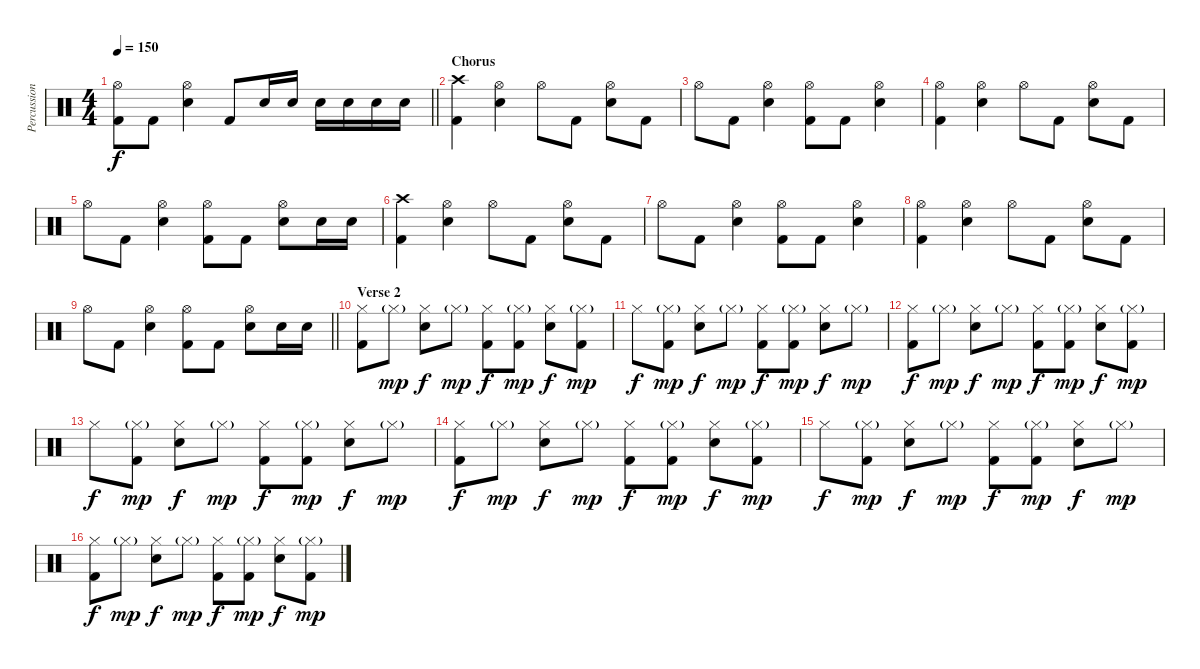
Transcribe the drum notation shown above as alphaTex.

\track ("Percussion" "Percussion") {instrument percussion}
\staff {score}
\articulation defaults
\ts (4 4)
\tempo 150
\clef neutral
\barLineRight lightlight
\ks c
("Hi-Hat (open)" "Kick (hit) 2").8{dy f} "Kick (hit) 2".8 ("Hi-Hat (open)" "Electric Snare (hit)").4 "Kick (hit) 2".8 "Electric Snare (hit)".16 "Electric Snare (hit)".16 "Electric Snare (hit)".16 "Electric Snare (hit)".16 "Electric Snare (hit)".16 "Electric Snare (hit)".16 |
\section ("" "Chorus")
("Crash high (hit)" "Kick (hit) 2").4{volume 13} ("Hi-Hat (open)" "Electric Snare (hit)").4 "Hi-Hat (open)".8 "Kick (hit) 2".8 ("Hi-Hat (open)" "Electric Snare (hit)").8 "Kick (hit) 2".8 |
"Hi-Hat (open)".8 "Kick (hit) 2".8 ("Hi-Hat (open)" "Electric Snare (hit)").4 ("Hi-Hat (open)" "Kick (hit) 2").8 "Kick (hit) 2".8 ("Hi-Hat (open)" "Electric Snare (hit)").4 |
("Hi-Hat (open)" "Kick (hit) 2").4 ("Hi-Hat (open)" "Electric Snare (hit)").4 "Hi-Hat (open)".8 "Kick (hit) 2".8 ("Hi-Hat (open)" "Electric Snare (hit)").8 "Kick (hit) 2".8 |
"Hi-Hat (open)".8 "Kick (hit) 2".8 ("Hi-Hat (open)" "Electric Snare (hit)").4 ("Hi-Hat (open)" "Kick (hit) 2").8 "Kick (hit) 2".8 ("Hi-Hat (open)" "Electric Snare (hit)").8 "Electric Snare (hit)".16 "Electric Snare (hit)".16 |
("Crash high (hit)" "Kick (hit) 2").4 ("Hi-Hat (open)" "Electric Snare (hit)").4 "Hi-Hat (open)".8 "Kick (hit) 2".8 ("Hi-Hat (open)" "Electric Snare (hit)").8 "Kick (hit) 2".8 |
"Hi-Hat (open)".8 "Kick (hit) 2".8 ("Hi-Hat (open)" "Electric Snare (hit)").4 ("Hi-Hat (open)" "Kick (hit) 2").8 "Kick (hit) 2".8 ("Hi-Hat (open)" "Electric Snare (hit)").4 |
("Hi-Hat (open)" "Kick (hit) 2").4 ("Hi-Hat (open)" "Electric Snare (hit)").4 "Hi-Hat (open)".8 "Kick (hit) 2".8 ("Hi-Hat (open)" "Electric Snare (hit)").8 "Kick (hit) 2".8 |
\barLineRight lightlight "Hi-Hat (open)".8 "Kick (hit) 2".8
("Hi-Hat (open)" "Electric Snare (hit)").4 ("Hi-Hat (open)" "Kick (hit) 2").8 "Kick (hit) 2".8 ("Hi-Hat (open)" "Electric Snare (hit)").8 "Electric Snare (hit)".16 "Electric Snare (hit)".16 |
\section ("" "Verse 2")
("Hi-Hat (closed)" "Kick (hit) 2").8 "Hi-Hat (closed)"{g}.8{dy mp} ("Hi-Hat (closed)" "Electric Snare (hit)").8{dy f} "Hi-Hat (closed)"{g}.8{dy mp} ("Hi-Hat (closed)" "Kick (hit) 2").8{dy f} ("Hi-Hat (closed)"{g} "Kick (hit) 2").8{dy mp} ("Hi-Hat (closed)" "Electric Snare (hit)").8{dy f} ("Hi-Hat (closed)"{g} "Kick (hit) 2").8{dy mp} |
"Hi-Hat (closed)".8{dy f} ("Hi-Hat (closed)"{g} "Kick (hit) 2").8{dy mp} ("Hi-Hat (closed)" "Electric Snare (hit)").8{dy f} "Hi-Hat (closed)"{g}.8{dy mp} ("Hi-Hat (closed)" "Kick (hit) 2").8{dy f} ("Hi-Hat (closed)"{g} "Kick (hit) 2").8{dy mp} ("Hi-Hat (closed)" "Electric Snare (hit)").8{dy f} "Hi-Hat (closed)"{g}.8{dy mp} |
("Hi-Hat (closed)" "Kick (hit) 2").8{dy f} "Hi-Hat (closed)"{g}.8{dy mp} ("Hi-Hat (closed)" "Electric Snare (hit)").8{dy f} "Hi-Hat (closed)"{g}.8{dy mp} ("Hi-Hat (closed)" "Kick (hit) 2").8{dy f} ("Hi-Hat (closed)"{g} "Kick (hit) 2").8{dy mp} ("Hi-Hat (closed)" "Electric Snare (hit)").8{dy f} ("Hi-Hat (closed)"{g} "Kick (hit) 2").8{dy mp} |
"Hi-Hat (closed)".8{dy f} ("Hi-Hat (closed)"{g} "Kick (hit) 2").8{dy mp} ("Hi-Hat (closed)" "Electric Snare (hit)").8{dy f} "Hi-Hat (closed)"{g}.8{dy mp} ("Hi-Hat (closed)" "Kick (hit) 2").8{dy f} ("Hi-Hat (closed)"{g} "Kick (hit) 2").8{dy mp} ("Hi-Hat (closed)" "Electric Snare (hit)").8{dy f} "Hi-Hat (closed)"{g}.8{dy mp} |
("Hi-Hat (closed)" "Kick (hit) 2").8{dy f} "Hi-Hat (closed)"{g}.8{dy mp} ("Hi-Hat (closed)" "Electric Snare (hit)").8{dy f} "Hi-Hat (closed)"{g}.8{dy mp} ("Hi-Hat (closed)" "Kick (hit) 2").8{dy f} ("Hi-Hat (closed)"{g} "Kick (hit) 2").8{dy mp} ("Hi-Hat (closed)" "Electric Snare (hit)").8{dy f} ("Hi-Hat (closed)"{g} "Kick (hit) 2").8{dy mp} |
"Hi-Hat (closed)".8{dy f} ("Hi-Hat (closed)"{g} "Kick (hit) 2").8{dy mp} ("Hi-Hat (closed)" "Electric Snare (hit)").8{dy f} "Hi-Hat (closed)"{g}.8{dy mp} ("Hi-Hat (closed)" "Kick (hit) 2").8{dy f} ("Hi-Hat (closed)"{g} "Kick (hit) 2").8{dy mp} ("Hi-Hat (closed)" "Electric Snare (hit)").8{dy f} "Hi-Hat (closed)"{g}.8{dy mp} |
("Hi-Hat (closed)" "Kick (hit) 2").8{dy f} "Hi-Hat (closed)"{g}.8{dy mp} ("Hi-Hat (closed)" "Electric Snare (hit)").8{dy f} "Hi-Hat (closed)"{g}.8{dy mp} ("Hi-Hat (closed)" "Kick (hit) 2").8{dy f} ("Hi-Hat (closed)"{g} "Kick (hit) 2").8{dy mp} ("Hi-Hat (closed)" "Electric Snare (hit)").8{dy f} ("Hi-Hat (closed)"{g} "Kick (hit) 2").8{dy mp}
